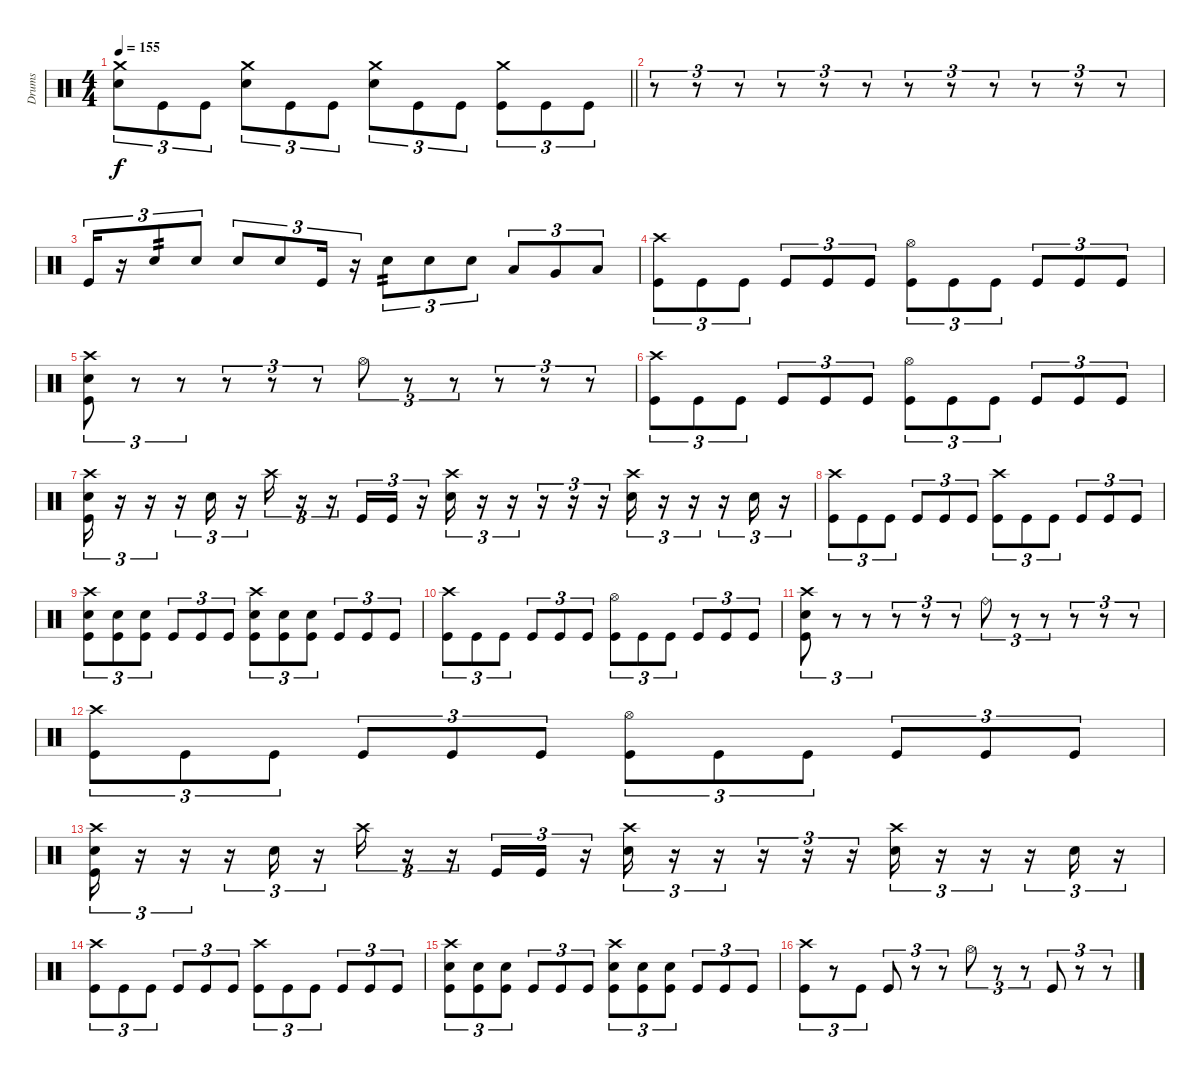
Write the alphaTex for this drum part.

\track ("Drums" "Drums") {instrument percussion}
\staff {score}
\articulation defaults
\ts (4 4)
\tempo 155
\clef neutral
\barLineRight lightlight
\ks c
("Crash medium (hit)" "Electric Snare (hit)").8{tu (3 2) dy f} "Kick (hit)".8{tu (3 2)} "Kick (hit)".8{tu (3 2)} ("Crash medium (hit)" "Electric Snare (hit)").8{tu (3 2)} "Kick (hit)".8{tu (3 2)} "Kick (hit)".8{tu (3 2)} ("Crash medium (hit)" "Electric Snare (hit)").8{tu (3 2)} "Kick (hit)".8{tu (3 2)} "Kick (hit)".8{tu (3 2)} ("Crash medium (hit)" "Kick (hit)").8{tu (3 2)} "Kick (hit)".8{tu (3 2)} "Kick (hit)".8{tu (3 2)} |
r.8{tu (3 2)} r.8{tu (3 2)} r.8{tu (3 2)} r.8{tu (3 2)} r.8{tu (3 2)} r.8{tu (3 2)} r.8{tu (3 2)} r.8{tu (3 2)} r.8{tu (3 2)} r.8{tu (3 2)} r.8{tu (3 2)} r.8{tu (3 2)} |
"Kick (hit)".16{tu (3 2)} r.16{tu (3 2)} "Electric Snare (hit)".8{tu (3 2) tp 2} "Electric Snare (hit)".8{tu (3 2)} "Electric Snare (hit)".8{tu (3 2)} "Electric Snare (hit)".8{tu (3 2)} "Kick (hit)".16{tu (3 2)} r.16{tu (3 2)} "Electric Snare (hit)".8{tu (3 2) tp 2} "Electric Snare (hit)".8{tu (3 2)} "Electric Snare (hit)".8{tu (3 2)} "Low Tom (hit)".8{tu (3 2)} "Very Low Tom (hit)".8{tu (3 2)} "Low Floor Tom (hit)".8{tu (3 2)} |
("Crash high (hit)" "Kick (hit)").8{tu (3 2)} "Kick (hit)".8{tu (3 2)} "Kick (hit)".8{tu (3 2)} "Kick (hit)".8{tu (3 2)} "Kick (hit)".8{tu (3 2)} "Kick (hit)".8{tu (3 2)} ("Hi-Hat (open)" "Kick (hit)").8{tu (3 2)} "Kick (hit)".8{tu (3 2)} "Kick (hit)".8{tu (3 2)} "Kick (hit)".8{tu (3 2)} "Kick (hit)".8{tu (3 2)} "Kick (hit)".8{tu (3 2)} |
("Crash high (hit)" "Electric Snare (hit)" "Kick (hit)").8{tu (3 2)} r.8{tu (3 2)} r.8{tu (3 2)} r.8{tu (3 2)} r.8{tu (3 2)} r.8{tu (3 2)} "Hi-Hat (open)".8{tu (3 2)} r.8{tu (3 2)} r.8{tu (3 2)} r.8{tu (3 2)} r.8{tu (3 2)} r.8{tu (3 2)} |
("Crash high (hit)" "Kick (hit)").8{tu (3 2)} "Kick (hit)".8{tu (3 2)} "Kick (hit)".8{tu (3 2)} "Kick (hit)".8{tu (3 2)} "Kick (hit)".8{tu (3 2)} "Kick (hit)".8{tu (3 2)} ("Hi-Hat (open)" "Kick (hit)").8{tu (3 2)} "Kick (hit)".8{tu (3 2)} "Kick (hit)".8{tu (3 2)} "Kick (hit)".8{tu (3 2)} "Kick (hit)".8{tu (3 2)} "Kick (hit)".8{tu (3 2)} |
("Crash high (hit)" "Electric Snare (hit)" "Kick (hit)").16{tu (3 2)} r.16{tu (3 2)} r.16{tu (3 2)} r.16{tu (3 2)} "Electric Snare (hit)".16{tu (3 2)} r.16{tu (3 2)} "Crash high (hit)".16{tu (3 2)} r.16{tu (3 2)} r.16{tu (3 2)} "Kick (hit)".16{tu (3 2)} "Kick (hit)".16{tu (3 2)} r.16{tu (3 2)} ("Crash high (hit)" "Electric Snare (hit)").16{tu (3 2)} r.16{tu (3 2)} r.16{tu (3 2)} r.16{tu (3 2)} r.16{tu (3 2)} r.16{tu (3 2)} ("Crash high (hit)" "Electric Snare (hit)").16{tu (3 2)} r.16{tu (3 2)} r.16{tu (3 2)} r.16{tu (3 2)} "Electric Snare (hit)".16{tu (3 2)} r.16{tu (3 2)} |
("Crash high (hit)" "Kick (hit)").8{tu (3 2)} "Kick (hit)".8{tu (3 2)} "Kick (hit)".8{tu (3 2)} "Kick (hit)".8{tu (3 2)} "Kick (hit)".8{tu (3 2)} "Kick (hit)".8{tu (3 2)} ("Crash high (hit)" "Kick (hit)").8{tu (3 2)} "Kick (hit)".8{tu (3 2)} "Kick (hit)".8{tu (3 2)} "Kick (hit)".8{tu (3 2)} "Kick (hit)".8{tu (3 2)} "Kick (hit)".8{tu (3 2)} |
("Crash high (hit)" "Electric Snare (hit)" "Kick (hit)").8{tu (3 2)} ("Electric Snare (hit)" "Kick (hit)").8{tu (3 2)} ("Electric Snare (hit)" "Kick (hit)").8{tu (3 2)} "Kick (hit)".8{tu (3 2)} "Kick (hit)".8{tu (3 2)} "Kick (hit)".8{tu (3 2)} ("Crash high (hit)" "Electric Snare (hit)" "Kick (hit)").8{tu (3 2)} ("Electric Snare (hit)" "Kick (hit)").8{tu (3 2)} ("Electric Snare (hit)" "Kick (hit)").8{tu (3 2)} "Kick (hit)".8{tu (3 2)} "Kick (hit)".8{tu (3 2)} "Kick (hit)".8{tu (3 2)} |
("Crash high (hit)" "Kick (hit)").8{tu (3 2)} "Kick (hit)".8{tu (3 2)} "Kick (hit)".8{tu (3 2)} "Kick (hit)".8{tu (3 2)} "Kick (hit)".8{tu (3 2)} "Kick (hit)".8{tu (3 2)} ("Hi-Hat (open)" "Kick (hit)").8{tu (3 2)} "Kick (hit)".8{tu (3 2)} "Kick (hit)".8{tu (3 2)} "Kick (hit)".8{tu (3 2)} "Kick (hit)".8{tu (3 2)} "Kick (hit)".8{tu (3 2)} |
("Crash high (hit)" "Electric Snare (hit)" "Kick (hit)").8{tu (3 2)} r.8{tu (3 2)} r.8{tu (3 2)} r.8{tu (3 2)} r.8{tu (3 2)} r.8{tu (3 2)} "Ride (bell)".8{tu (3 2)} r.8{tu (3 2)} r.8{tu (3 2)} r.8{tu (3 2)} r.8{tu (3 2)} r.8{tu (3 2)} |
("Crash high (hit)" "Kick (hit)").8{tu (3 2)} "Kick (hit)".8{tu (3 2)} "Kick (hit)".8{tu (3 2)} "Kick (hit)".8{tu (3 2)} "Kick (hit)".8{tu (3 2)} "Kick (hit)".8{tu (3 2)} ("Hi-Hat (open)" "Kick (hit)").8{tu (3 2)} "Kick (hit)".8{tu (3 2)} "Kick (hit)".8{tu (3 2)} "Kick (hit)".8{tu (3 2)} "Kick (hit)".8{tu (3 2)} "Kick (hit)".8{tu (3 2)} |
("Crash high (hit)" "Electric Snare (hit)" "Kick (hit)").16{tu (3 2)} r.16{tu (3 2)} r.16{tu (3 2)} r.16{tu (3 2)} "Electric Snare (hit)".16{tu (3 2)} r.16{tu (3 2)} "Crash high (hit)".16{tu (3 2)} r.16{tu (3 2)} r.16{tu (3 2)} "Kick (hit)".16{tu (3 2)} "Kick (hit)".16{tu (3 2)} r.16{tu (3 2)} ("Crash high (hit)" "Electric Snare (hit)").16{tu (3 2)} r.16{tu (3 2)} r.16{tu (3 2)} r.16{tu (3 2)} r.16{tu (3 2)} r.16{tu (3 2)} ("Crash high (hit)" "Electric Snare (hit)").16{tu (3 2)} r.16{tu (3 2)} r.16{tu (3 2)} r.16{tu (3 2)} "Electric Snare (hit)".16{tu (3 2)} r.16{tu (3 2)} |
("Crash high (hit)" "Kick (hit)").8{tu (3 2)} "Kick (hit)".8{tu (3 2)} "Kick (hit)".8{tu (3 2)} "Kick (hit)".8{tu (3 2)} "Kick (hit)".8{tu (3 2)} "Kick (hit)".8{tu (3 2)} ("Crash high (hit)" "Kick (hit)").8{tu (3 2)} "Kick (hit)".8{tu (3 2)} "Kick (hit)".8{tu (3 2)} "Kick (hit)".8{tu (3 2)} "Kick (hit)".8{tu (3 2)} "Kick (hit)".8{tu (3 2)} |
("Crash high (hit)" "Electric Snare (hit)" "Kick (hit)").8{tu (3 2)} ("Electric Snare (hit)" "Kick (hit)").8{tu (3 2)} ("Electric Snare (hit)" "Kick (hit)").8{tu (3 2)} "Kick (hit)".8{tu (3 2)} "Kick (hit)".8{tu (3 2)} "Kick (hit)".8{tu (3 2)} ("Crash high (hit)" "Electric Snare (hit)" "Kick (hit)").8{tu (3 2)} ("Electric Snare (hit)" "Kick (hit)").8{tu (3 2)} ("Electric Snare (hit)" "Kick (hit)").8{tu (3 2)} "Kick (hit)".8{tu (3 2)} "Kick (hit)".8{tu (3 2)} "Kick (hit)".8{tu (3 2)} |
("Crash high (hit)" "Kick (hit)").8{tu (3 2)} r.8{tu (3 2)} "Kick (hit)".8{tu (3 2)} "Kick (hit)".8{tu (3 2)} r.8{tu (3 2)} r.8{tu (3 2)} "Hi-Hat (open)".8{tu (3 2)} r.8{tu (3 2)} r.8{tu (3 2)} "Kick (hit)".8{tu (3 2)} r.8{tu (3 2)} r.8{tu (3 2)}
